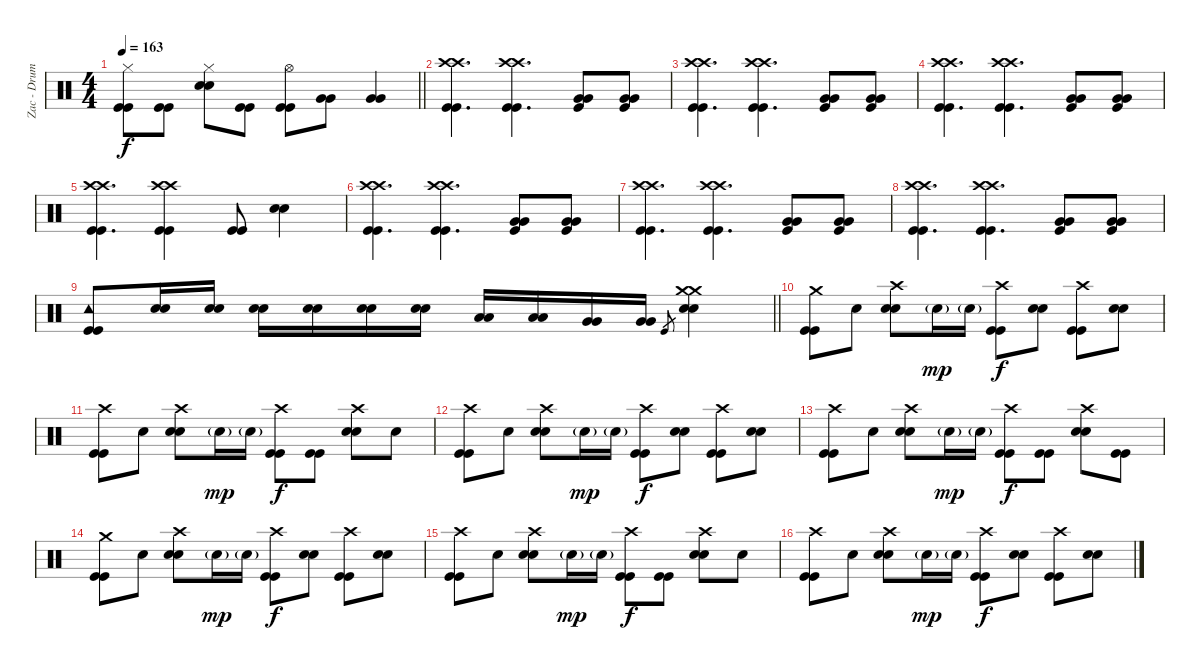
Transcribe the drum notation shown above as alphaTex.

\track ("Zac - Drums" "Zac - Drum") {instrument percussion}
\staff {score}
\articulation defaults
\ts (4 4)
\tempo 163
\clef neutral
\barLineRight lightlight
\ks c
("Hi-Hat (closed)" "Kick (hit)" "Kick (hit)").8{dy f} ("Kick (hit)" "Kick (hit)").8 ("Hi-Hat (closed)" "Electric Snare (hit)" "Electric Snare (hit)").8 ("Kick (hit)" "Kick (hit)").8 ("Hi-Hat (open)" "Kick (hit)" "Kick (hit)").8 ("Very Low Tom (hit)" "Very Low Tom (hit)").8 ("Very Low Tom (hit)" "Very Low Tom (hit)").4 |
("Crash high (hit)" "Crash high (hit)" "Kick (hit)" "Kick (hit)").4{d} ("Crash high (hit)" "Crash high (hit)" "Kick (hit)" "Kick (hit)").4{d} ("Very Low Tom (hit)" "Very Low Tom (hit)" "Kick (hit)").8 ("Very Low Tom (hit)" "Very Low Tom (hit)" "Kick (hit)").8 |
("Crash high (hit)" "Crash high (hit)" "Kick (hit)" "Kick (hit)").4{d} ("Crash high (hit)" "Crash high (hit)" "Kick (hit)" "Kick (hit)").4{d} ("Very Low Tom (hit)" "Very Low Tom (hit)" "Kick (hit)").8 ("Very Low Tom (hit)" "Very Low Tom (hit)" "Kick (hit)").8 |
("Crash high (hit)" "Crash high (hit)" "Kick (hit)" "Kick (hit)").4{d} ("Crash high (hit)" "Crash high (hit)" "Kick (hit)" "Kick (hit)").4{d} ("Very Low Tom (hit)" "Very Low Tom (hit)" "Kick (hit)").8 ("Very Low Tom (hit)" "Very Low Tom (hit)" "Kick (hit)").8 |
("Crash high (hit)" "Crash high (hit)" "Kick (hit)" "Kick (hit)").4{d} ("Crash high (hit)" "Crash high (hit)" "Kick (hit)" "Kick (hit)").4 ("Kick (hit)" "Kick (hit)").8 ("Electric Snare (hit)" "Electric Snare (hit)").4 |
("Crash high (hit)" "Crash high (hit)" "Kick (hit)" "Kick (hit)").4{d} ("Crash high (hit)" "Crash high (hit)" "Kick (hit)" "Kick (hit)").4{d} ("Very Low Tom (hit)" "Very Low Tom (hit)" "Kick (hit)").8 ("Very Low Tom (hit)" "Very Low Tom (hit)" "Kick (hit)").8 |
("Crash high (hit)" "Crash high (hit)" "Kick (hit)" "Kick (hit)").4{d} ("Crash high (hit)" "Crash high (hit)" "Kick (hit)" "Kick (hit)").4{d} ("Very Low Tom (hit)" "Very Low Tom (hit)" "Kick (hit)").8 ("Very Low Tom (hit)" "Very Low Tom (hit)" "Kick (hit)").8 |
("Crash high (hit)" "Crash high (hit)" "Kick (hit)" "Kick (hit)").4{d} ("Crash high (hit)" "Crash high (hit)" "Kick (hit)" "Kick (hit)").4{d} ("Very Low Tom (hit)" "Very Low Tom (hit)" "Kick (hit)").8 ("Very Low Tom (hit)" "Very Low Tom (hit)" "Kick (hit)").8 |
\barLineRight lightlight
("Tambourine (hit)" "Kick (hit)" "Kick (hit)").8 ("Electric Snare (hit)" "Electric Snare (hit)").16 ("Electric Snare (hit)" "Electric Snare (hit)").16 ("Electric Snare (hit)" "Electric Snare (hit)").16 ("Electric Snare (hit)" "Electric Snare (hit)").16 ("Electric Snare (hit)" "Electric Snare (hit)").16 ("Electric Snare (hit)" "Electric Snare (hit)").16 ("Low Tom (hit)" "Low Tom (hit)").16 ("Low Tom (hit)" "Low Tom (hit)").16 ("Very Low Tom (hit)" "Very Low Tom (hit)").16 ("Very Low Tom (hit)" "Very Low Tom (hit)").16 "Kick (hit)".8{gr} ("Crash medium (hit)" "Crash medium (hit)" "Electric Snare (hit)" "Electric Snare (hit)").4 |
("Crash medium (hit)" "Kick (hit)" "Kick (hit)").8 "Snare (hit)".8 ("Crash high (hit)" "Electric Snare (hit)" "Electric Snare (hit)").8 "Electric Snare (hit)"{g}.16{dy mp} "Electric Snare (hit)"{g}.16 ("Crash high (hit)" "Kick (hit)" "Kick (hit)").8{dy f} ("Electric Snare (hit)" "Electric Snare (hit)").8 ("Crash high (hit)" "Kick (hit)" "Kick (hit)").8 ("Electric Snare (hit)" "Electric Snare (hit)").8 |
("Crash high (hit)" "Kick (hit)" "Kick (hit)").8 "Snare (hit)".8 ("Crash high (hit)" "Electric Snare (hit)" "Electric Snare (hit)").8 "Electric Snare (hit)"{g}.16{dy mp} "Electric Snare (hit)"{g}.16 ("Crash high (hit)" "Kick (hit)" "Kick (hit)").8{dy f} ("Kick (hit)" "Kick (hit)").8 ("Crash high (hit)" "Electric Snare (hit)" "Electric Snare (hit)").8 "Snare (hit)".8 |
("Crash high (hit)" "Kick (hit)" "Kick (hit)").8 "Snare (hit)".8 ("Crash high (hit)" "Electric Snare (hit)" "Electric Snare (hit)").8 "Electric Snare (hit)"{g}.16{dy mp} "Electric Snare (hit)"{g}.16 ("Crash high (hit)" "Kick (hit)" "Kick (hit)").8{dy f} ("Electric Snare (hit)" "Electric Snare (hit)").8 ("Crash high (hit)" "Kick (hit)" "Kick (hit)").8 ("Electric Snare (hit)" "Electric Snare (hit)").8 |
("Crash high (hit)" "Kick (hit)" "Kick (hit)").8 "Snare (hit)".8 ("Crash high (hit)" "Electric Snare (hit)" "Electric Snare (hit)").8 "Electric Snare (hit)"{g}.16{dy mp} "Electric Snare (hit)"{g}.16 ("Crash high (hit)" "Kick (hit)" "Kick (hit)").8{dy f} ("Kick (hit)" "Kick (hit)").8 ("Crash high (hit)" "Electric Snare (hit)" "Electric Snare (hit)").8 ("Kick (hit)" "Kick (hit)").8 |
("Crash medium (hit)" "Kick (hit)" "Kick (hit)").8 "Snare (hit)".8 ("Crash high (hit)" "Electric Snare (hit)" "Electric Snare (hit)").8 "Electric Snare (hit)"{g}.16{dy mp} "Electric Snare (hit)"{g}.16 ("Crash high (hit)" "Kick (hit)" "Kick (hit)").8{dy f} ("Electric Snare (hit)" "Electric Snare (hit)").8 ("Crash high (hit)" "Kick (hit)" "Kick (hit)").8 ("Electric Snare (hit)" "Electric Snare (hit)").8 |
("Crash high (hit)" "Kick (hit)" "Kick (hit)").8 "Snare (hit)".8 ("Crash high (hit)" "Electric Snare (hit)" "Electric Snare (hit)").8 "Electric Snare (hit)"{g}.16{dy mp} "Electric Snare (hit)"{g}.16 ("Crash high (hit)" "Kick (hit)" "Kick (hit)").8{dy f} ("Kick (hit)" "Kick (hit)").8 ("Crash high (hit)" "Electric Snare (hit)" "Electric Snare (hit)").8 "Snare (hit)".8 |
("Crash high (hit)" "Kick (hit)" "Kick (hit)").8 "Snare (hit)".8 ("Crash high (hit)" "Electric Snare (hit)" "Electric Snare (hit)").8 "Electric Snare (hit)"{g}.16{dy mp} "Electric Snare (hit)"{g}.16 ("Crash high (hit)" "Kick (hit)" "Kick (hit)").8{dy f} ("Electric Snare (hit)" "Electric Snare (hit)").8 ("Crash high (hit)" "Kick (hit)" "Kick (hit)").8 ("Electric Snare (hit)" "Electric Snare (hit)").8
